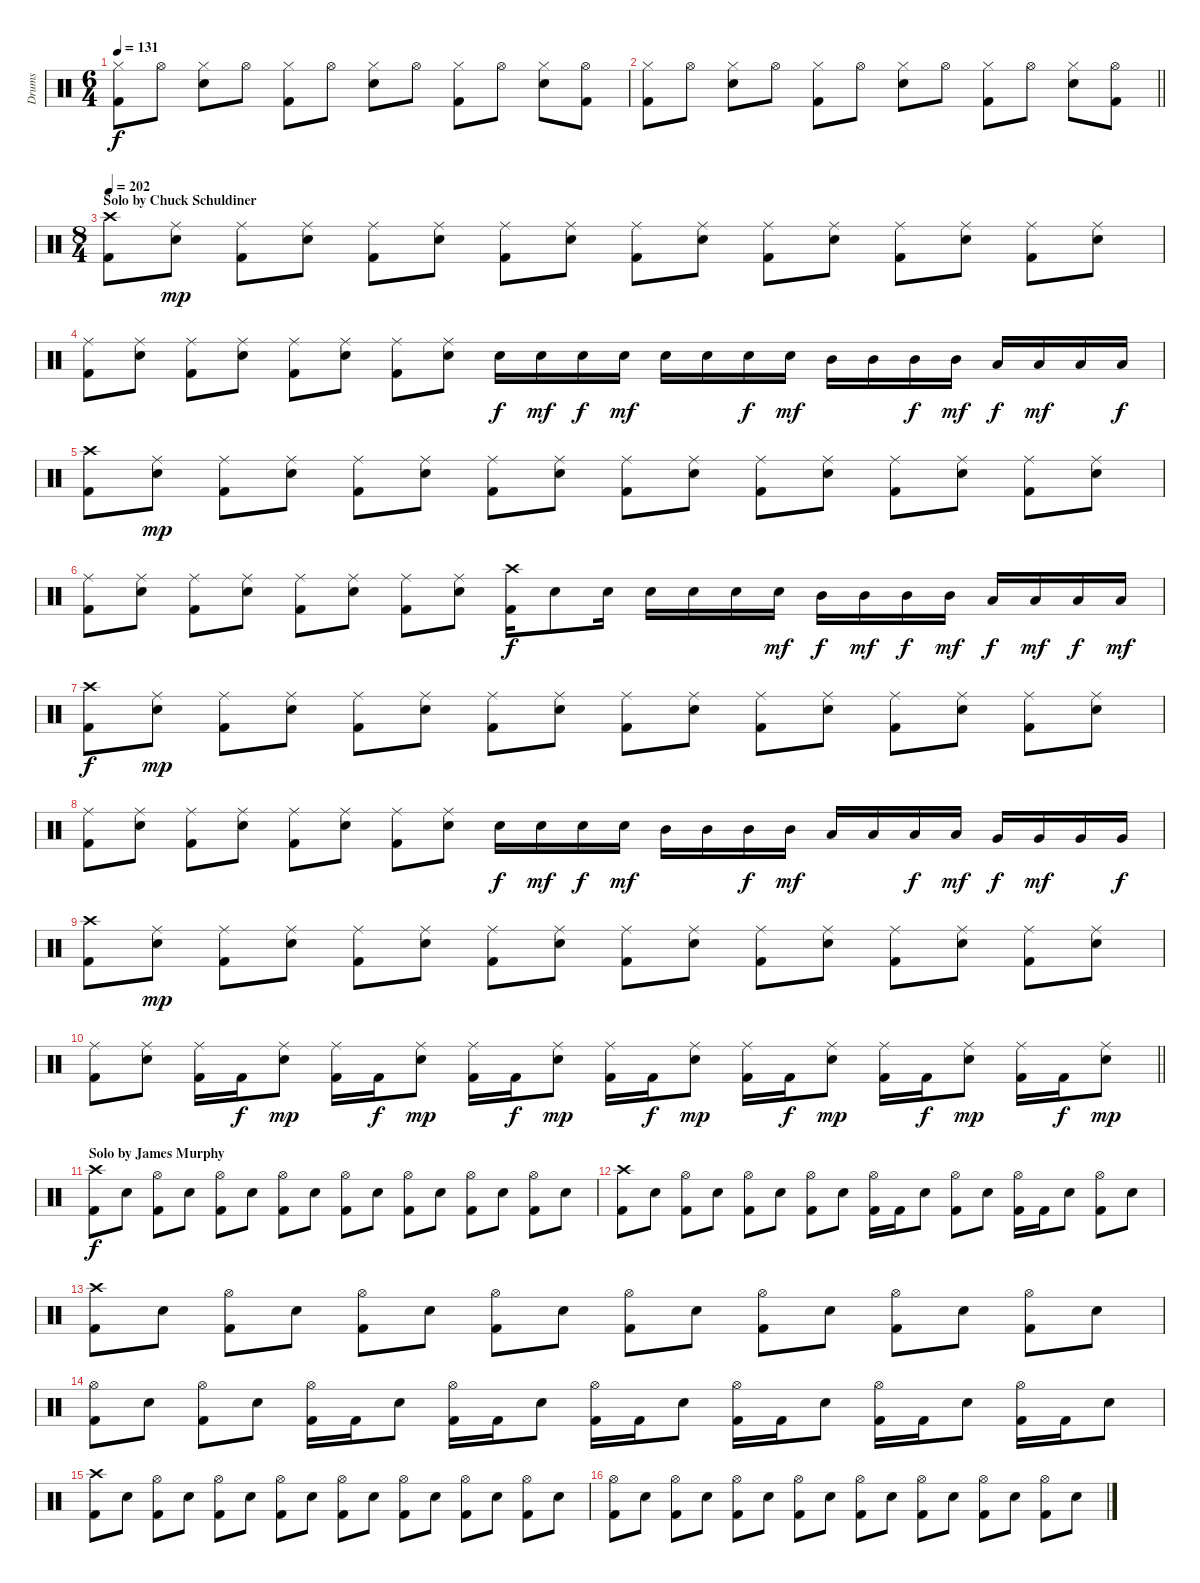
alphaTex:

\track ("Drums" "Drums") {instrument percussion}
\staff {score}
\articulation defaults
\ts (6 4)
\tempo 131
\clef neutral
\ks c
("Hi-Hat (closed)" "Kick (hit) 2").8{dy f} "Hi-Hat (open)".8 ("Hi-Hat (closed)" "Snare (hit) 2").8 "Hi-Hat (open)".8 ("Hi-Hat (closed)" "Kick (hit) 2").8 "Hi-Hat (open)".8 ("Hi-Hat (closed)" "Snare (hit) 2").8 "Hi-Hat (open)".8 ("Hi-Hat (closed)" "Kick (hit) 2").8 "Hi-Hat (open)".8 ("Hi-Hat (closed)" "Snare (hit) 2").8 ("Hi-Hat (open)" "Kick (hit) 2").8 |
\barLineRight lightlight
("Hi-Hat (closed)" "Kick (hit) 2").8 "Hi-Hat (open)".8 ("Hi-Hat (closed)" "Snare (hit) 2").8 "Hi-Hat (open)".8 ("Hi-Hat (closed)" "Kick (hit) 2").8 "Hi-Hat (open)".8 ("Hi-Hat (closed)" "Snare (hit) 2").8 "Hi-Hat (open)".8 ("Hi-Hat (closed)" "Kick (hit) 2").8 "Hi-Hat (open)".8 ("Hi-Hat (closed)" "Snare (hit) 2").8 ("Hi-Hat (open)" "Kick (hit) 2").8 |
\ts (8 4)
\section ("" "Solo by Chuck Schuldiner")
\tempo 202
("Crash high (hit)" "Kick (hit) 2").8 ("Ride (middle)" "Snare (hit) 2").8{dy mp} ("Ride (middle)" "Kick (hit) 2").8 ("Ride (middle)" "Snare (hit) 2").8 ("Ride (middle)" "Kick (hit) 2").8 ("Ride (middle)" "Snare (hit) 2").8 ("Ride (middle)" "Kick (hit) 2").8 ("Ride (middle)" "Snare (hit) 2").8 ("Ride (middle)" "Kick (hit) 2").8 ("Ride (middle)" "Snare (hit) 2").8 ("Ride (middle)" "Kick (hit) 2").8 ("Ride (middle)" "Snare (hit) 2").8 ("Ride (middle)" "Kick (hit) 2").8 ("Ride (middle)" "Snare (hit) 2").8 ("Ride (middle)" "Kick (hit) 2").8 ("Ride (middle)" "Snare (hit) 2").8 |
("Ride (middle)" "Kick (hit) 2").8 ("Ride (middle)" "Snare (hit) 2").8 ("Ride (middle)" "Kick (hit) 2").8 ("Ride (middle)" "Snare (hit) 2").8 ("Ride (middle)" "Kick (hit) 2").8 ("Ride (middle)" "Snare (hit) 2").8 ("Ride (middle)" "Kick (hit) 2").8 ("Ride (middle)" "Snare (hit) 2").8 "Snare (hit) 2".16{dy f} "Snare (hit) 2".16{dy mf} "Snare (hit) 2".16{dy f} "Snare (hit) 2".16{dy mf} "Snare (hit) 2".16 "Snare (hit) 2".16 "Snare (hit) 2".16{dy f} "Snare (hit) 2".16{dy mf} "Mid Tom (hit)".16 "Mid Tom (hit)".16 "Mid Tom (hit)".16{dy f} "Mid Tom (hit)".16{dy mf} "Low Tom (hit)".16{dy f} "Low Tom (hit)".16{dy mf} "Low Tom (hit)".16 "Low Tom (hit)".16{dy f} |
("Crash high (hit)" "Kick (hit) 2").8 ("Ride (middle)" "Snare (hit) 2").8{dy mp} ("Ride (middle)" "Kick (hit) 2").8 ("Ride (middle)" "Snare (hit) 2").8 ("Ride (middle)" "Kick (hit) 2").8 ("Ride (middle)" "Snare (hit) 2").8 ("Ride (middle)" "Kick (hit) 2").8 ("Ride (middle)" "Snare (hit) 2").8 ("Ride (middle)" "Kick (hit) 2").8 ("Ride (middle)" "Snare (hit) 2").8 ("Ride (middle)" "Kick (hit) 2").8 ("Ride (middle)" "Snare (hit) 2").8 ("Ride (middle)" "Kick (hit) 2").8 ("Ride (middle)" "Snare (hit) 2").8 ("Ride (middle)" "Kick (hit) 2").8 ("Ride (middle)" "Snare (hit) 2").8 |
("Ride (middle)" "Kick (hit) 2").8 ("Ride (middle)" "Snare (hit) 2").8 ("Ride (middle)" "Kick (hit) 2").8 ("Ride (middle)" "Snare (hit) 2").8 ("Ride (middle)" "Kick (hit) 2").8 ("Ride (middle)" "Snare (hit) 2").8 ("Ride (middle)" "Kick (hit) 2").8 ("Ride (middle)" "Snare (hit) 2").8 ("Crash high (hit)" "Kick (hit) 2").16{dy f} "Snare (hit) 2".8 "Snare (hit) 2".16 "Snare (hit) 2".16 "Snare (hit) 2".16 "Snare (hit) 2".16 "Snare (hit) 2".16{dy mf} "Mid Tom (hit)".16{dy f} "Mid Tom (hit)".16{dy mf} "Mid Tom (hit)".16{dy f} "Mid Tom (hit)".16{dy mf} "Low Tom (hit)".16{dy f} "Low Tom (hit)".16{dy mf} "Low Tom (hit)".16{dy f} "Low Tom (hit)".16{dy mf} |
("Crash high (hit)" "Kick (hit) 2").8{dy f} ("Ride (middle)" "Snare (hit) 2").8{dy mp} ("Ride (middle)" "Kick (hit) 2").8 ("Ride (middle)" "Snare (hit) 2").8 ("Ride (middle)" "Kick (hit) 2").8 ("Ride (middle)" "Snare (hit) 2").8 ("Ride (middle)" "Kick (hit) 2").8 ("Ride (middle)" "Snare (hit) 2").8 ("Ride (middle)" "Kick (hit) 2").8 ("Ride (middle)" "Snare (hit) 2").8 ("Ride (middle)" "Kick (hit) 2").8 ("Ride (middle)" "Snare (hit) 2").8 ("Ride (middle)" "Kick (hit) 2").8 ("Ride (middle)" "Snare (hit) 2").8 ("Ride (middle)" "Kick (hit) 2").8 ("Ride (middle)" "Snare (hit) 2").8 |
("Ride (middle)" "Kick (hit) 2").8 ("Ride (middle)" "Snare (hit) 2").8 ("Ride (middle)" "Kick (hit) 2").8 ("Ride (middle)" "Snare (hit) 2").8 ("Ride (middle)" "Kick (hit) 2").8 ("Ride (middle)" "Snare (hit) 2").8 ("Ride (middle)" "Kick (hit) 2").8 ("Ride (middle)" "Snare (hit) 2").8 "Snare (hit) 2".16{dy f} "Snare (hit) 2".16{dy mf} "Snare (hit) 2".16{dy f} "Snare (hit) 2".16{dy mf} "Mid Tom (hit)".16 "Mid Tom (hit)".16 "Mid Tom (hit)".16{dy f} "Mid Tom (hit)".16{dy mf} "Low Tom (hit)".16 "Low Tom (hit)".16 "Low Tom (hit)".16{dy f} "Low Tom (hit)".16{dy mf} "Very Low Tom (hit)".16{dy f} "Very Low Tom (hit)".16{dy mf} "Very Low Tom (hit)".16 "Very Low Tom (hit)".16{dy f} |
("Crash high (hit)" "Kick (hit) 2").8 ("Ride (middle)" "Snare (hit) 2").8{dy mp} ("Ride (middle)" "Kick (hit) 2").8 ("Ride (middle)" "Snare (hit) 2").8 ("Ride (middle)" "Kick (hit) 2").8 ("Ride (middle)" "Snare (hit) 2").8 ("Ride (middle)" "Kick (hit) 2").8 ("Ride (middle)" "Snare (hit) 2").8 ("Ride (middle)" "Kick (hit) 2").8 ("Ride (middle)" "Snare (hit) 2").8 ("Ride (middle)" "Kick (hit) 2").8 ("Ride (middle)" "Snare (hit) 2").8 ("Ride (middle)" "Kick (hit) 2").8 ("Ride (middle)" "Snare (hit) 2").8 ("Ride (middle)" "Kick (hit) 2").8 ("Ride (middle)" "Snare (hit) 2").8 |
\barLineRight lightlight
("Ride (middle)" "Kick (hit) 2").8 ("Ride (middle)" "Snare (hit) 2").8 ("Ride (middle)" "Kick (hit) 2").16 "Kick (hit) 2".16{dy f} ("Ride (middle)" "Snare (hit) 2").8{dy mp} ("Ride (middle)" "Kick (hit) 2").16 "Kick (hit) 2".16{dy f} ("Ride (middle)" "Snare (hit) 2").8{dy mp} ("Ride (middle)" "Kick (hit) 2").16 "Kick (hit) 2".16{dy f} ("Ride (middle)" "Snare (hit) 2").8{dy mp} ("Ride (middle)" "Kick (hit) 2").16 "Kick (hit) 2".16{dy f} ("Ride (middle)" "Snare (hit) 2").8{dy mp} ("Ride (middle)" "Kick (hit) 2").16 "Kick (hit) 2".16{dy f} ("Ride (middle)" "Snare (hit) 2").8{dy mp} ("Ride (middle)" "Kick (hit) 2").16 "Kick (hit) 2".16{dy f} ("Ride (middle)" "Snare (hit) 2").8{dy mp} ("Ride (middle)" "Kick (hit) 2").16 "Kick (hit) 2".16{dy f} ("Ride (middle)" "Snare (hit) 2").8{dy mp} |
\section ("" "Solo by James Murphy")
("Crash high (hit)" "Kick (hit) 2").8{dy f} "Snare (hit) 2".8 ("Hi-Hat (open)" "Kick (hit) 2").8 "Snare (hit) 2".8 ("Hi-Hat (open)" "Kick (hit) 2").8 "Snare (hit) 2".8 ("Hi-Hat (open)" "Kick (hit) 2").8 "Snare (hit) 2".8 ("Hi-Hat (open)" "Kick (hit) 2").8 "Snare (hit) 2".8 ("Hi-Hat (open)" "Kick (hit) 2").8 "Snare (hit) 2".8 ("Hi-Hat (open)" "Kick (hit) 2").8 "Snare (hit) 2".8 ("Hi-Hat (open)" "Kick (hit) 2").8 "Snare (hit) 2".8 |
("Crash high (hit)" "Kick (hit) 2").8 "Snare (hit) 2".8 ("Hi-Hat (open)" "Kick (hit) 2").8 "Snare (hit) 2".8 ("Hi-Hat (open)" "Kick (hit) 2").8 "Snare (hit) 2".8 ("Hi-Hat (open)" "Kick (hit) 2").8 "Snare (hit) 2".8 ("Hi-Hat (open)" "Kick (hit) 2").16 "Kick (hit) 2".16 "Snare (hit) 2".8 ("Hi-Hat (open)" "Kick (hit) 2").8 "Snare (hit) 2".8 ("Hi-Hat (open)" "Kick (hit) 2").16 "Kick (hit) 2".16 "Snare (hit) 2".8 ("Hi-Hat (open)" "Kick (hit) 2").8 "Snare (hit) 2".8 |
("Crash high (hit)" "Kick (hit) 2").8 "Snare (hit) 2".8 ("Hi-Hat (open)" "Kick (hit) 2").8 "Snare (hit) 2".8 ("Hi-Hat (open)" "Kick (hit) 2").8 "Snare (hit) 2".8 ("Hi-Hat (open)" "Kick (hit) 2").8 "Snare (hit) 2".8 ("Hi-Hat (open)" "Kick (hit) 2").8 "Snare (hit) 2".8 ("Hi-Hat (open)" "Kick (hit) 2").8 "Snare (hit) 2".8 ("Hi-Hat (open)" "Kick (hit) 2").8 "Snare (hit) 2".8 ("Hi-Hat (open)" "Kick (hit) 2").8 "Snare (hit) 2".8 |
("Hi-Hat (open)" "Kick (hit) 2").8 "Snare (hit) 2".8 ("Hi-Hat (open)" "Kick (hit) 2").8 "Snare (hit) 2".8 ("Hi-Hat (open)" "Kick (hit) 2").16 "Kick (hit) 2".16 "Snare (hit) 2".8 ("Hi-Hat (open)" "Kick (hit) 2").16 "Kick (hit) 2".16 "Snare (hit) 2".8 ("Hi-Hat (open)" "Kick (hit) 2").16 "Kick (hit) 2".16 "Snare (hit) 2".8 ("Hi-Hat (open)" "Kick (hit) 2").16 "Kick (hit) 2".16 "Snare (hit) 2".8 ("Hi-Hat (open)" "Kick (hit) 2").16 "Kick (hit) 2".16 "Snare (hit) 2".8 ("Hi-Hat (open)" "Kick (hit) 2").16 "Kick (hit) 2".16 "Snare (hit) 2".8 |
("Crash high (hit)" "Kick (hit) 2").8 "Snare (hit) 2".8 ("Hi-Hat (open)" "Kick (hit) 2").8 "Snare (hit) 2".8 ("Hi-Hat (open)" "Kick (hit) 2").8 "Snare (hit) 2".8 ("Hi-Hat (open)" "Kick (hit) 2").8 "Snare (hit) 2".8 ("Hi-Hat (open)" "Kick (hit) 2").8 "Snare (hit) 2".8 ("Hi-Hat (open)" "Kick (hit) 2").8 "Snare (hit) 2".8 ("Hi-Hat (open)" "Kick (hit) 2").8 "Snare (hit) 2".8 ("Hi-Hat (open)" "Kick (hit) 2").8 "Snare (hit) 2".8 |
("Hi-Hat (open)" "Kick (hit) 2").8 "Snare (hit) 2".8 ("Hi-Hat (open)" "Kick (hit) 2").8 "Snare (hit) 2".8 ("Hi-Hat (open)" "Kick (hit) 2").8 "Snare (hit) 2".8 ("Hi-Hat (open)" "Kick (hit) 2").8 "Snare (hit) 2".8 ("Hi-Hat (open)" "Kick (hit) 2").8 "Snare (hit) 2".8 ("Hi-Hat (open)" "Kick (hit) 2").8 "Snare (hit) 2".8 ("Hi-Hat (open)" "Kick (hit) 2").8 "Snare (hit) 2".8 ("Hi-Hat (open)" "Kick (hit) 2").8 "Snare (hit) 2".8
